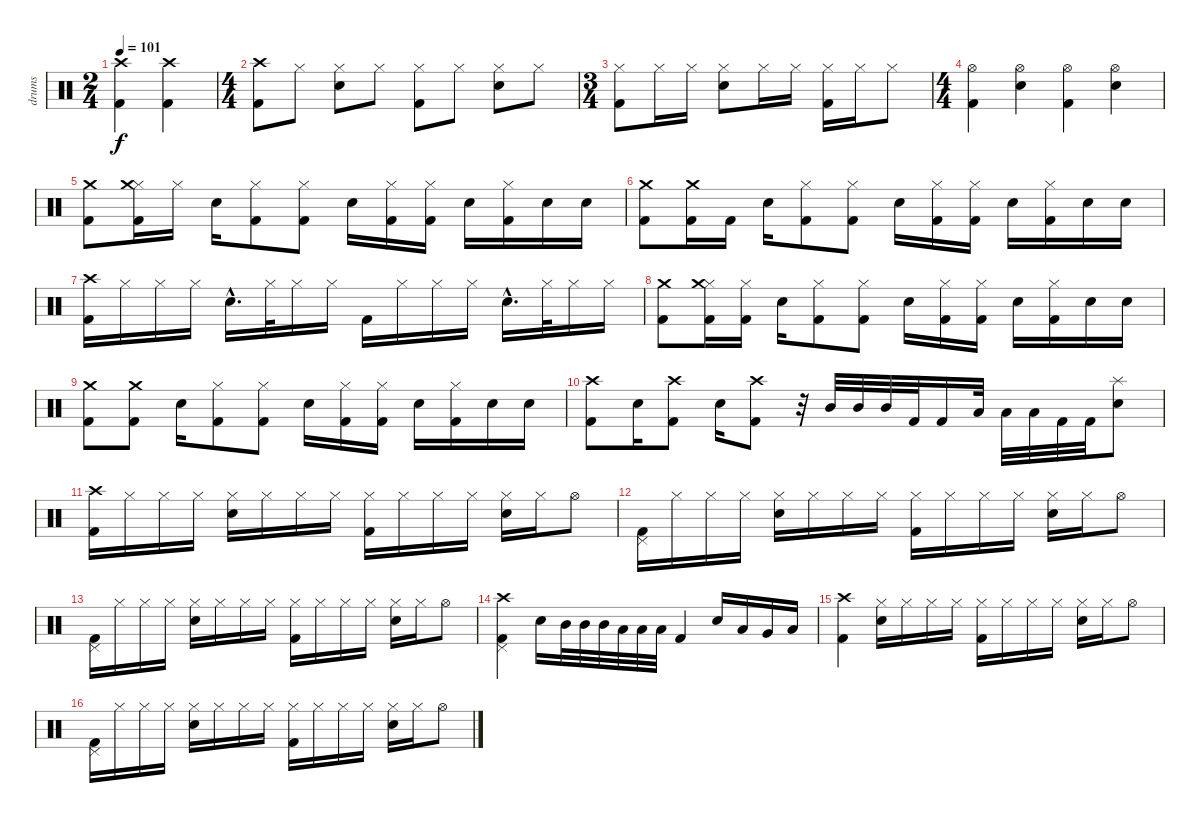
\track ("drums" "drums") {instrument percussion}
\staff {score}
\articulation defaults
\ts (2 4)
\tempo 101
\clef neutral
\ks c
("Crash high (hit)" "Kick (hit) 2").4{dy f} ("Crash high (hit)" "Kick (hit) 2").4 |
\ts (4 4)
("Crash high (hit)" "Kick (hit) 2").8 "Hi-Hat (closed)".8 ("Hi-Hat (closed)" "Electric Snare (hit)").8 "Hi-Hat (closed)".8 ("Hi-Hat (closed)" "Kick (hit) 2").8 "Hi-Hat (closed)".8 ("Hi-Hat (closed)" "Electric Snare (hit)").8 "Hi-Hat (closed)".8 |
\ts (3 4)
("Hi-Hat (closed)" "Kick (hit) 2").8 "Hi-Hat (closed)".16 "Hi-Hat (closed)".16 ("Hi-Hat (closed)" "Electric Snare (hit)").8 "Hi-Hat (closed)".16 "Hi-Hat (closed)".16 ("Hi-Hat (closed)" "Kick (hit) 2").16 "Hi-Hat (closed)".16 "Hi-Hat (closed)".8 |
\ts (4 4)
("Hi-Hat (open)" "Kick (hit) 2").4 ("Hi-Hat (open)" "Electric Snare (hit)").4 ("Hi-Hat (open)" "Kick (hit) 2").4 ("Hi-Hat (open)" "Electric Snare (hit)").4 |
("Crash medium (hit)" "Kick (hit) 2").8 ("Hi-Hat (closed)" "Crash medium (hit)" "Kick (hit) 2").16 "Hi-Hat (closed)".16 "Electric Snare (hit)".16 ("Hi-Hat (closed)" "Kick (hit) 2").8 ("Hi-Hat (closed)" "Kick (hit) 2").8 "Electric Snare (hit)".16 ("Hi-Hat (closed)" "Kick (hit) 2").16 ("Hi-Hat (closed)" "Kick (hit) 2").16 "Electric Snare (hit)".16 ("Hi-Hat (closed)" "Kick (hit) 2").16 "Electric Snare (hit)".16 "Electric Snare (hit)".16 |
("Crash medium (hit)" "Kick (hit) 2").8 ("Crash medium (hit)" "Kick (hit) 2").16 "Kick (hit) 2".16 "Electric Snare (hit)".16 ("Hi-Hat (closed)" "Kick (hit) 2").8 ("Hi-Hat (closed)" "Kick (hit) 2").8 "Electric Snare (hit)".16 ("Hi-Hat (closed)" "Kick (hit) 2").16 ("Hi-Hat (closed)" "Kick (hit) 2").16 "Electric Snare (hit)".16 ("Hi-Hat (closed)" "Kick (hit) 2").16 "Electric Snare (hit)".16 "Electric Snare (hit)".16 |
("Crash high (hit)" "Kick (hit) 2").16 "Hi-Hat (closed)".16 "Hi-Hat (closed)".16 "Hi-Hat (closed)".16 "Electric Snare (hit)"{hac}.16{d} "Hi-Hat (closed)".32 "Hi-Hat (closed)".16 "Hi-Hat (closed)".16 "Kick (hit) 2".16 "Hi-Hat (closed)".16 "Hi-Hat (closed)".16 "Hi-Hat (closed)".16 "Electric Snare (hit)"{hac}.16{d} "Hi-Hat (closed)".32 "Hi-Hat (closed)".16 "Hi-Hat (closed)".16 |
("Crash medium (hit)" "Kick (hit) 2").8 ("Hi-Hat (closed)" "Crash medium (hit)" "Kick (hit) 2").16 ("Hi-Hat (closed)" "Kick (hit) 2").16 "Electric Snare (hit)".16 ("Hi-Hat (closed)" "Kick (hit) 2").8 ("Hi-Hat (closed)" "Kick (hit) 2").8 "Electric Snare (hit)".16 ("Hi-Hat (closed)" "Kick (hit) 2").16 ("Hi-Hat (closed)" "Kick (hit) 2").16 "Electric Snare (hit)".16 ("Hi-Hat (closed)" "Kick (hit) 2").16 "Electric Snare (hit)".16 "Electric Snare (hit)".16 |
("Crash medium (hit)" "Kick (hit) 2").8 ("Crash medium (hit)" "Kick (hit) 2").8 "Electric Snare (hit)".16 ("Hi-Hat (closed)" "Kick (hit) 2").8 ("Hi-Hat (closed)" "Kick (hit) 2").8 "Electric Snare (hit)".16 ("Hi-Hat (closed)" "Kick (hit) 2").16 ("Hi-Hat (closed)" "Kick (hit) 2").16 "Electric Snare (hit)".16 ("Hi-Hat (closed)" "Kick (hit) 2").16 "Electric Snare (hit)".16 "Electric Snare (hit)".16 |
("Crash high (hit)" "Kick (hit) 2").8 "Electric Snare (hit)".16 ("Crash high (hit)" "Kick (hit) 2").8 "Electric Snare (hit)".16 ("Crash high (hit)" "Kick (hit) 2").8 r.32 "Mid Tom (hit)".32 "Mid Tom (hit)".32 "Mid Tom (hit)".32 "Kick (hit) 2".32 "Kick (hit) 2".16 "Low Tom (hit)".32 "Low Tom (hit)".32 "Low Tom (hit)".32 "Kick (hit) 2".32 "Kick (hit) 2".32 ("Splash (hit)" "Electric Snare (hit)").8 |
("Crash high (hit)" "Kick (hit) 2").16 "Hi-Hat (closed)".16 "Hi-Hat (closed)".16 "Hi-Hat (closed)".16 ("Hi-Hat (closed)" "Electric Snare (hit)").16 "Hi-Hat (closed)".16 "Hi-Hat (closed)".16 "Hi-Hat (closed)".16 ("Hi-Hat (closed)" "Kick (hit) 2").16 "Hi-Hat (closed)".16 "Hi-Hat (closed)".16 "Hi-Hat (closed)".16 ("Hi-Hat (closed)" "Electric Snare (hit)").16 "Hi-Hat (closed)".16 "Hi-Hat (open)".8 |
("Pedal Hi-Hat (hit)" "Kick (hit) 2").16 "Hi-Hat (closed)".16 "Hi-Hat (closed)".16 "Hi-Hat (closed)".16 ("Hi-Hat (closed)" "Electric Snare (hit)").16 "Hi-Hat (closed)".16 "Hi-Hat (closed)".16 "Hi-Hat (closed)".16 ("Hi-Hat (closed)" "Kick (hit) 2").16 "Hi-Hat (closed)".16 "Hi-Hat (closed)".16 "Hi-Hat (closed)".16 ("Hi-Hat (closed)" "Electric Snare (hit)").16 "Hi-Hat (closed)".16 "Hi-Hat (open)".8 |
("Pedal Hi-Hat (hit)" "Kick (hit) 2").16 "Hi-Hat (closed)".16 "Hi-Hat (closed)".16 "Hi-Hat (closed)".16 ("Hi-Hat (closed)" "Electric Snare (hit)").16 "Hi-Hat (closed)".16 "Hi-Hat (closed)".16 "Hi-Hat (closed)".16 ("Hi-Hat (closed)" "Kick (hit) 2").16 "Hi-Hat (closed)".16 "Hi-Hat (closed)".16 "Hi-Hat (closed)".16 ("Hi-Hat (closed)" "Electric Snare (hit)").16 "Hi-Hat (closed)".16 "Hi-Hat (open)".8 |
("Crash high (hit)" "Pedal Hi-Hat (hit)" "Kick (hit) 2").4 "Electric Snare (hit)".16 "Mid Tom (hit)".32 "Mid Tom (hit)".32 "Mid Tom (hit)".32 "Low Tom (hit)".32 "Low Tom (hit)".32 "Low Tom (hit)".32 "Kick (hit) 2".4 "Electric Snare (hit)".16 "Low Tom (hit)".16 "Very Low Tom (hit)".16 "Low Floor Tom (hit)".16 |
("Crash high (hit)" "Kick (hit) 2").4 ("Hi-Hat (closed)" "Electric Snare (hit)").16 "Hi-Hat (closed)".16 "Hi-Hat (closed)".16 "Hi-Hat (closed)".16 ("Hi-Hat (closed)" "Kick (hit) 2").16 "Hi-Hat (closed)".16 "Hi-Hat (closed)".16 "Hi-Hat (closed)".16 ("Hi-Hat (closed)" "Electric Snare (hit)").16 "Hi-Hat (closed)".16 "Hi-Hat (open)".8 |
("Pedal Hi-Hat (hit)" "Kick (hit) 2").16 "Hi-Hat (closed)".16 "Hi-Hat (closed)".16 "Hi-Hat (closed)".16 ("Hi-Hat (closed)" "Electric Snare (hit)").16 "Hi-Hat (closed)".16 "Hi-Hat (closed)".16 "Hi-Hat (closed)".16 ("Hi-Hat (closed)" "Kick (hit) 2").16 "Hi-Hat (closed)".16 "Hi-Hat (closed)".16 "Hi-Hat (closed)".16 ("Hi-Hat (closed)" "Electric Snare (hit)").16 "Hi-Hat (closed)".16 "Hi-Hat (open)".8
